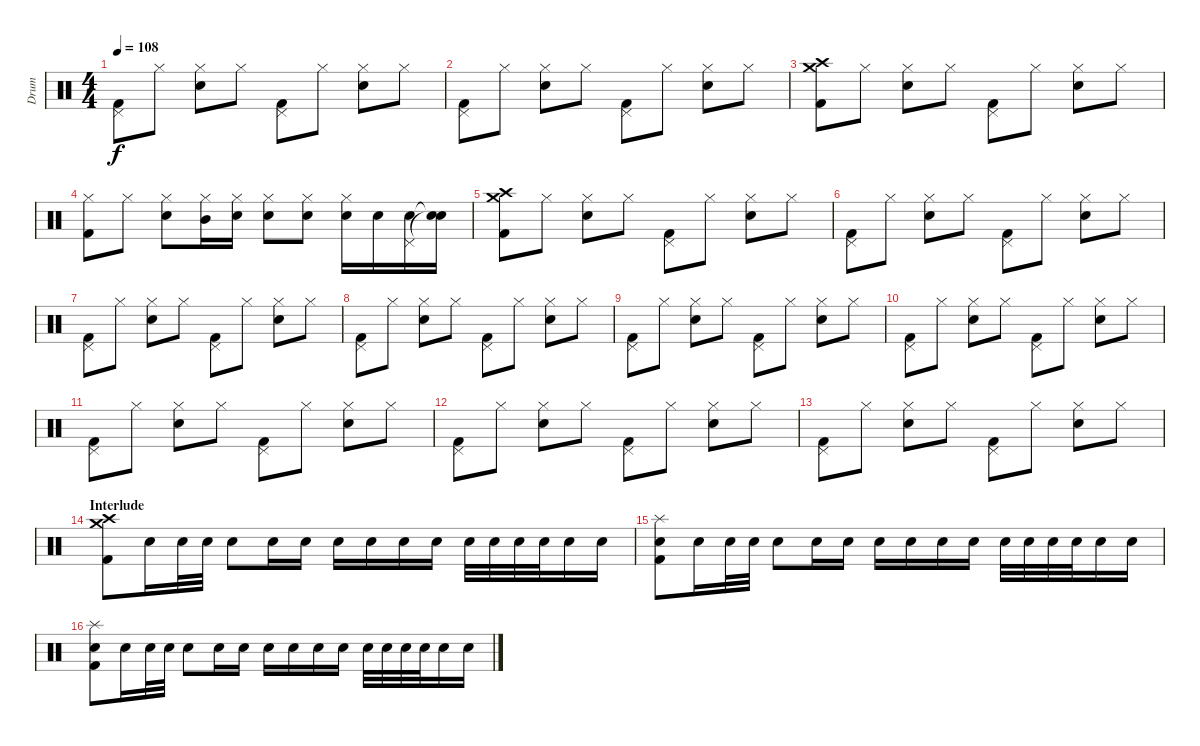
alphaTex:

\track ("Drum" "Drum") {instrument percussion}
\staff {score}
\articulation defaults
\ts (4 4)
\tempo 108
\clef neutral
\ks c
("Pedal Hi-Hat (hit)" "Kick (hit) 2").8{dy f} "Hi-Hat (closed)".8 ("Hi-Hat (closed)" "Electric Snare (hit)").8 "Hi-Hat (closed)".8 ("Pedal Hi-Hat (hit)" "Kick (hit) 2").8 "Hi-Hat (closed)".8 ("Hi-Hat (closed)" "Electric Snare (hit)").8 "Hi-Hat (closed)".8 |
("Pedal Hi-Hat (hit)" "Kick (hit) 2").8 "Hi-Hat (closed)".8 ("Hi-Hat (closed)" "Electric Snare (hit)").8 "Hi-Hat (closed)".8 ("Pedal Hi-Hat (hit)" "Kick (hit) 2").8 "Hi-Hat (closed)".8 ("Hi-Hat (closed)" "Electric Snare (hit)").8 "Hi-Hat (closed)".8 |
("Kick (hit) 2" "Crash high (hit)" "Crash medium (hit)").8 "Hi-Hat (closed)".8 ("Hi-Hat (closed)" "Electric Snare (hit)").8 "Hi-Hat (closed)".8 ("Pedal Hi-Hat (hit)" "Kick (hit) 2").8 "Hi-Hat (closed)".8 ("Hi-Hat (closed)" "Electric Snare (hit)").8 "Hi-Hat (closed)".8 |
("Hi-Hat (closed)" "Kick (hit) 2").8 "Hi-Hat (closed)".8 ("Hi-Hat (closed)" "Electric Snare (hit)").8 ("Hi-Hat (closed)" "Mid Tom (hit)").16 ("Hi-Hat (closed)" "Electric Snare (hit)").16 ("Hi-Hat (closed)" "Electric Snare (hit)").8 ("Hi-Hat (closed)" "Electric Snare (hit)").8 ("Hi-Hat (closed)" "Electric Snare (hit)").16 "Electric Snare (hit)".16 ("Pedal Hi-Hat (hit)" "Electric Snare (hit)").16 ("Snare (hit)"{t} "Snare (hit)"{t}).16 |
("Kick (hit) 2" "Crash high (hit)" "Crash medium (hit)").8 "Hi-Hat (closed)".8 ("Hi-Hat (closed)" "Electric Snare (hit)").8 "Hi-Hat (closed)".8 ("Pedal Hi-Hat (hit)" "Kick (hit) 2").8 "Hi-Hat (closed)".8 ("Hi-Hat (closed)" "Electric Snare (hit)").8 "Hi-Hat (closed)".8 |
("Pedal Hi-Hat (hit)" "Kick (hit) 2").8 "Hi-Hat (closed)".8 ("Hi-Hat (closed)" "Electric Snare (hit)").8 "Hi-Hat (closed)".8 ("Pedal Hi-Hat (hit)" "Kick (hit) 2").8 "Hi-Hat (closed)".8 ("Hi-Hat (closed)" "Electric Snare (hit)").8 "Hi-Hat (closed)".8 |
("Pedal Hi-Hat (hit)" "Kick (hit) 2").8 "Hi-Hat (closed)".8 ("Hi-Hat (closed)" "Electric Snare (hit)").8 "Hi-Hat (closed)".8 ("Pedal Hi-Hat (hit)" "Kick (hit) 2").8 "Hi-Hat (closed)".8 ("Hi-Hat (closed)" "Electric Snare (hit)").8 "Hi-Hat (closed)".8 |
("Pedal Hi-Hat (hit)" "Kick (hit) 2").8 "Hi-Hat (closed)".8 ("Hi-Hat (closed)" "Electric Snare (hit)").8 "Hi-Hat (closed)".8 ("Pedal Hi-Hat (hit)" "Kick (hit) 2").8 "Hi-Hat (closed)".8 ("Hi-Hat (closed)" "Electric Snare (hit)").8 "Hi-Hat (closed)".8 |
("Pedal Hi-Hat (hit)" "Kick (hit) 2").8 "Hi-Hat (closed)".8 ("Hi-Hat (closed)" "Electric Snare (hit)").8 "Hi-Hat (closed)".8 ("Pedal Hi-Hat (hit)" "Kick (hit) 2").8 "Hi-Hat (closed)".8 ("Hi-Hat (closed)" "Electric Snare (hit)").8 "Hi-Hat (closed)".8 |
("Pedal Hi-Hat (hit)" "Kick (hit) 2").8 "Hi-Hat (closed)".8 ("Hi-Hat (closed)" "Electric Snare (hit)").8 "Hi-Hat (closed)".8 ("Pedal Hi-Hat (hit)" "Kick (hit) 2").8 "Hi-Hat (closed)".8 ("Hi-Hat (closed)" "Electric Snare (hit)").8 "Hi-Hat (closed)".8 |
("Pedal Hi-Hat (hit)" "Kick (hit) 2").8 "Hi-Hat (closed)".8 ("Hi-Hat (closed)" "Electric Snare (hit)").8 "Hi-Hat (closed)".8 ("Pedal Hi-Hat (hit)" "Kick (hit) 2").8 "Hi-Hat (closed)".8 ("Hi-Hat (closed)" "Electric Snare (hit)").8 "Hi-Hat (closed)".8 |
("Pedal Hi-Hat (hit)" "Kick (hit) 2").8 "Hi-Hat (closed)".8 ("Hi-Hat (closed)" "Electric Snare (hit)").8 "Hi-Hat (closed)".8 ("Pedal Hi-Hat (hit)" "Kick (hit) 2").8 "Hi-Hat (closed)".8 ("Hi-Hat (closed)" "Electric Snare (hit)").8 "Hi-Hat (closed)".8 |
("Pedal Hi-Hat (hit)" "Kick (hit) 2").8 "Hi-Hat (closed)".8 ("Hi-Hat (closed)" "Electric Snare (hit)").8 "Hi-Hat (closed)".8 ("Pedal Hi-Hat (hit)" "Kick (hit) 2").8 "Hi-Hat (closed)".8 ("Hi-Hat (closed)" "Electric Snare (hit)").8 "Hi-Hat (closed)".8 |
\section ("" "Interlude")
("Crash high (hit)" "Crash medium (hit)" "Kick (hit) 2").8 "Electric Snare (hit)".16 "Electric Snare (hit)".32 "Electric Snare (hit)".32 "Electric Snare (hit)".8 "Electric Snare (hit)".16 "Electric Snare (hit)".16 "Electric Snare (hit)".16 "Electric Snare (hit)".16 "Electric Snare (hit)".16 "Electric Snare (hit)".16 "Electric Snare (hit)".32 "Electric Snare (hit)".32 "Electric Snare (hit)".32 "Electric Snare (hit)".32 "Electric Snare (hit)".16 "Electric Snare (hit)".16 |
("Splash (hit)" "Electric Snare (hit)" "Kick (hit) 2").8 "Electric Snare (hit)".16 "Electric Snare (hit)".32 "Electric Snare (hit)".32 "Electric Snare (hit)".8 "Electric Snare (hit)".16 "Electric Snare (hit)".16 "Electric Snare (hit)".16 "Electric Snare (hit)".16 "Electric Snare (hit)".16 "Electric Snare (hit)".16 "Electric Snare (hit)".32 "Electric Snare (hit)".32 "Electric Snare (hit)".32 "Electric Snare (hit)".32 "Electric Snare (hit)".16 "Electric Snare (hit)".16 |
("Splash (hit)" "Electric Snare (hit)" "Kick (hit) 2").8 "Electric Snare (hit)".16 "Electric Snare (hit)".32 "Electric Snare (hit)".32 "Electric Snare (hit)".8 "Electric Snare (hit)".16 "Electric Snare (hit)".16 "Electric Snare (hit)".16 "Electric Snare (hit)".16 "Electric Snare (hit)".16 "Electric Snare (hit)".16 "Electric Snare (hit)".32 "Electric Snare (hit)".32 "Electric Snare (hit)".32 "Electric Snare (hit)".32 "Electric Snare (hit)".16 "Electric Snare (hit)".16
